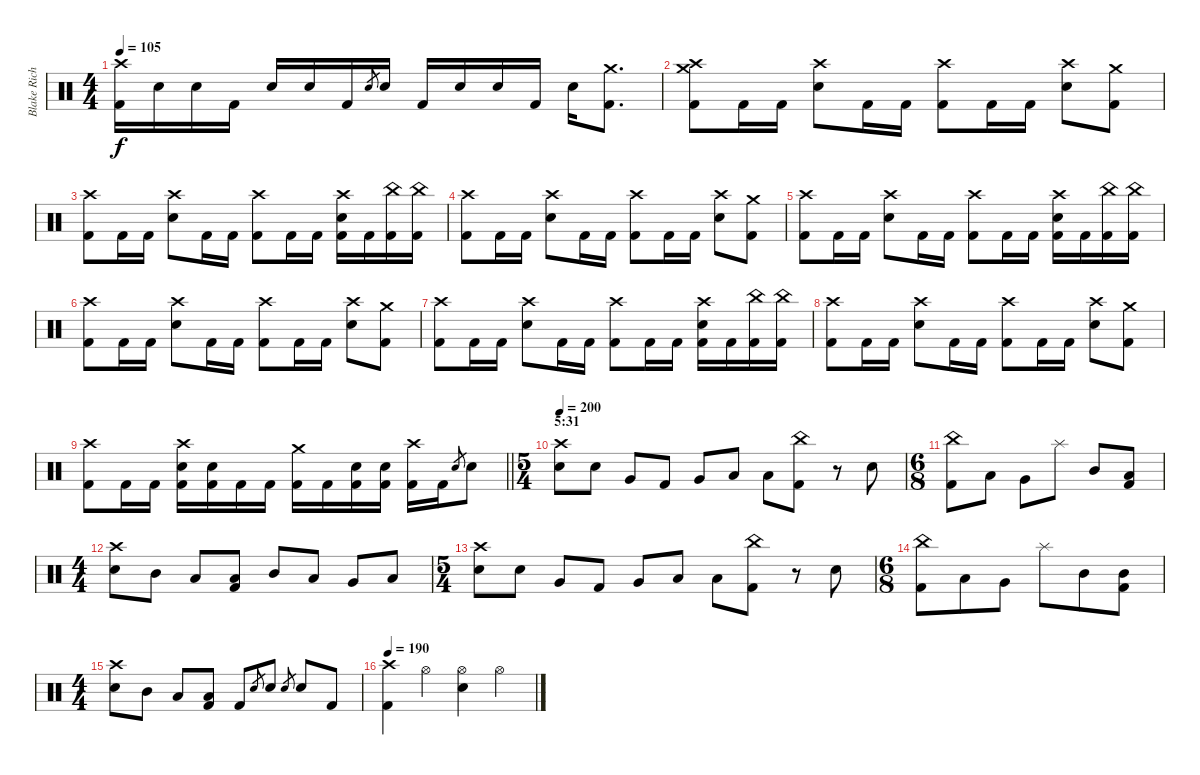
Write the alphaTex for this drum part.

\track ("Blake Richardson" "Blake Rich") {instrument percussion}
\staff {score}
\articulation defaults
\ts (4 4)
\tempo 105
\clef neutral
\ks c
("Crash high (hit)" "Kick (hit) 2").16{dy f} "Electric Snare (hit)".16 "Electric Snare (hit)".16 "Kick (hit) 2".16 "Electric Snare (hit)".16 "Electric Snare (hit)".16 "Kick (hit) 2".16 "Electric Snare (hit)".8{gr} "Electric Snare (hit)".16 "Kick (hit) 2".16 "Electric Snare (hit)".16 "Electric Snare (hit)".16 "Kick (hit) 2".16 "Electric Snare (hit)".16 ("Crash medium (hit)" "Kick (hit) 2").8{d} |
("Crash high (hit)" "Crash medium (hit)" "Kick (hit) 2").8 "Kick (hit) 2".16 "Kick (hit) 2".16 ("Crash high (hit)" "Electric Snare (hit)").8 "Kick (hit) 2".16 "Kick (hit) 2".16 ("Crash high (hit)" "Kick (hit) 2").8 "Kick (hit) 2".16 "Kick (hit) 2".16 ("Crash high (hit)" "Electric Snare (hit)").8 ("Crash medium (hit)" "Kick (hit) 2").8 |
("Crash high (hit)" "Kick (hit) 2").8 "Kick (hit) 2".16 "Kick (hit) 2".16 ("Crash high (hit)" "Electric Snare (hit)").8 "Kick (hit) 2".16 "Kick (hit) 2".16 ("Crash high (hit)" "Kick (hit) 2").8 "Kick (hit) 2".16 "Kick (hit) 2".16 ("Crash high (hit)" "Electric Snare (hit)" "Kick (hit) 2").16 "Kick (hit) 2".16 ("China (hit)" "Kick (hit) 2").16 ("China (hit)" "Kick (hit) 2").16 |
("Crash high (hit)" "Kick (hit) 2").8 "Kick (hit) 2".16 "Kick (hit) 2".16 ("Crash high (hit)" "Electric Snare (hit)").8 "Kick (hit) 2".16 "Kick (hit) 2".16 ("Crash high (hit)" "Kick (hit) 2").8 "Kick (hit) 2".16 "Kick (hit) 2".16 ("Crash high (hit)" "Electric Snare (hit)").8 ("Crash medium (hit)" "Kick (hit) 2").8 |
("Crash high (hit)" "Kick (hit) 2").8 "Kick (hit) 2".16 "Kick (hit) 2".16 ("Crash high (hit)" "Electric Snare (hit)").8 "Kick (hit) 2".16 "Kick (hit) 2".16 ("Crash high (hit)" "Kick (hit) 2").8 "Kick (hit) 2".16 "Kick (hit) 2".16 ("Crash high (hit)" "Electric Snare (hit)" "Kick (hit) 2").16 "Kick (hit) 2".16 ("China (hit)" "Kick (hit) 2").16 ("China (hit)" "Kick (hit) 2").16 |
("Crash high (hit)" "Kick (hit) 2").8 "Kick (hit) 2".16 "Kick (hit) 2".16 ("Crash high (hit)" "Electric Snare (hit)").8 "Kick (hit) 2".16 "Kick (hit) 2".16 ("Crash high (hit)" "Kick (hit) 2").8 "Kick (hit) 2".16 "Kick (hit) 2".16 ("Crash high (hit)" "Electric Snare (hit)").8 ("Crash medium (hit)" "Kick (hit) 2").8 |
("Crash high (hit)" "Kick (hit) 2").8 "Kick (hit) 2".16 "Kick (hit) 2".16 ("Crash high (hit)" "Electric Snare (hit)").8 "Kick (hit) 2".16 "Kick (hit) 2".16 ("Crash high (hit)" "Kick (hit) 2").8 "Kick (hit) 2".16 "Kick (hit) 2".16 ("Crash high (hit)" "Electric Snare (hit)" "Kick (hit) 2").16 "Kick (hit) 2".16 ("China (hit)" "Kick (hit) 2").16 ("China (hit)" "Kick (hit) 2").16 |
("Crash high (hit)" "Kick (hit) 2").8 "Kick (hit) 2".16 "Kick (hit) 2".16 ("Crash high (hit)" "Electric Snare (hit)").8 "Kick (hit) 2".16 "Kick (hit) 2".16 ("Crash high (hit)" "Kick (hit) 2").8 "Kick (hit) 2".16 "Kick (hit) 2".16 ("Crash high (hit)" "Electric Snare (hit)").8 ("Crash medium (hit)" "Kick (hit) 2").8 |
\barLineRight lightlight
("Crash high (hit)" "Kick (hit) 2").8 "Kick (hit) 2".16 "Kick (hit) 2".16 ("Crash high (hit)" "Electric Snare (hit)" "Kick (hit) 2").16 ("Electric Snare (hit)" "Kick (hit) 2").16 "Kick (hit) 2".16 "Kick (hit) 2".16 ("Crash medium (hit)" "Kick (hit) 2").16 "Kick (hit) 2".16 ("Electric Snare (hit)" "Kick (hit) 2").16 ("Electric Snare (hit)" "Kick (hit) 2").16 ("Crash high (hit)" "Kick (hit) 2").16 "Kick (hit) 2".16 "Electric Snare (hit)".8{gr} "Electric Snare (hit)".8 |
\ts (5 4)
\section ("" "5:31")
\tempo 200
("Crash high (hit)" "Electric Snare (hit)").8 "Electric Snare (hit)".8{beam split} "Very Low Tom (hit)".8 "Kick (hit) 2".8{beam split} "Very Low Tom (hit)".8 "Low Floor Tom (hit)".8 "Low Floor Tom (hit)".8 ("China (hit)" "Kick (hit) 2").8 r.8 "Electric Snare (hit)".8 |
\ts (6 8)
("China (hit)" "Kick (hit) 2").8 "Low Tom (hit)".8{beam split} "Very Low Tom (hit)".8{beam merge} "Splash (hit)".8{beam split} "Mid Tom (hit)".8 ("Low Tom (hit)" "Kick (hit) 2").8 |
\ts (4 4)
("Crash high (hit)" "Electric Snare (hit)").8 "Mid Tom (hit)".8 "Low Tom (hit)".8 ("Low Floor Tom (hit)" "Kick (hit) 2").8 "Mid Tom (hit)".8 "Low Tom (hit)".8 "Very Low Tom (hit)".8 "Low Floor Tom (hit)".8 |
\ts (5 4)
("Crash high (hit)" "Electric Snare (hit)").8 "Electric Snare (hit)".8 "Very Low Tom (hit)".8 "Kick (hit) 2".8 "Very Low Tom (hit)".8 "Low Floor Tom (hit)".8 "Low Floor Tom (hit)".8 ("China (hit)" "Kick (hit) 2").8 r.8 "Electric Snare (hit)".8 |
\ts (6 8)
("China (hit)" "Kick (hit) 2").8 "Low Tom (hit)".8 "Very Low Tom (hit)".8 "Splash (hit)".8 "Mid Tom (hit)".8 ("Mid Tom (hit)" "Kick (hit) 2").8 |
\ts (4 4)
("Crash high (hit)" "Electric Snare (hit)").8 "Mid Tom (hit)".8 "Low Tom (hit)".8 ("Low Floor Tom (hit)" "Kick (hit) 2").8 "Kick (hit) 2".8 "Electric Snare (hit)".8{gr} "Electric Snare (hit)".8 "Electric Snare (hit)".8{gr} "Electric Snare (hit)".8 "Kick (hit) 2".8 |
\tempo 190
("Crash high (hit)" "Kick (hit) 2").4 "Hi-Hat (open)".4 ("Hi-Hat (open)" "Electric Snare (hit)").4 "Hi-Hat (open)".4
